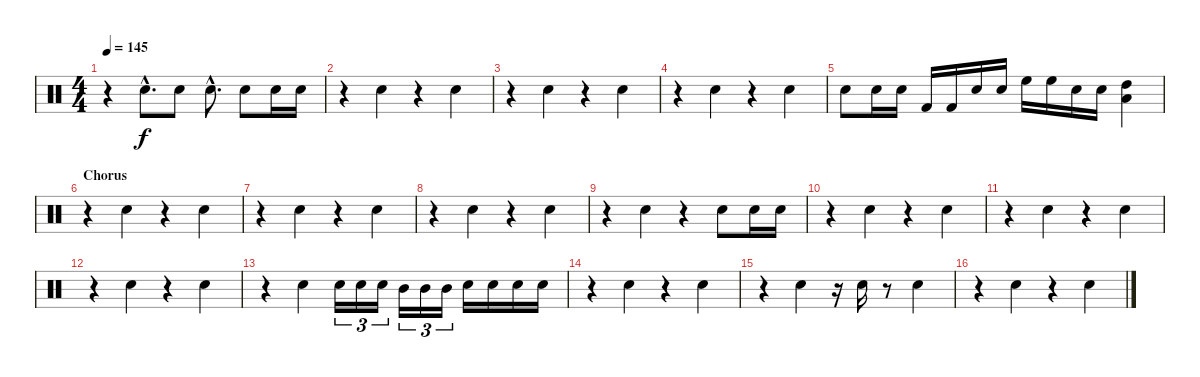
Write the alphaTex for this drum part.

\track "" {instrument percussion}
\staff {score}
\articulation defaults
\ts (4 4)
\tempo 145
\clef neutral
\ks c
r.4{dy f} "Electric Snare (hit)"{hac}.8{d} "Electric Snare (hit)".8 "Electric Snare (hit)"{hac}.8{d} "Electric Snare (hit)".8 "Electric Snare (hit)".16 "Electric Snare (hit)".16 |
r.4 "Electric Snare (hit)".4 r.4 "Electric Snare (hit)".4 |
r.4 "Electric Snare (hit)".4 r.4 "Electric Snare (hit)".4 |
r.4 "Electric Snare (hit)".4 r.4 "Electric Snare (hit)".4 |
"Electric Snare (hit)".8 "Electric Snare (hit)".16 "Electric Snare (hit)".16 "Kick (hit) 2".16 "Kick (hit) 2".16 "Electric Snare (hit)".16 "Electric Snare (hit)".16 "High Floor Tom (hit)".16 "High Floor Tom (hit)".16 "Electric Snare (hit)".16 "Electric Snare (hit)".16 ("Low Tom (hit)" "High Tom (hit)").4 |
\section ("" "Chorus")
r.4 "Electric Snare (hit)".4 r.4 "Electric Snare (hit)".4 |
r.4 "Electric Snare (hit)".4 r.4 "Electric Snare (hit)".4 |
r.4 "Electric Snare (hit)".4 r.4 "Electric Snare (hit)".4 |
r.4 "Electric Snare (hit)".4 r.4 "Electric Snare (hit)".8 "Electric Snare (hit)".16 "Electric Snare (hit)".16 |
r.4 "Electric Snare (hit)".4 r.4 "Electric Snare (hit)".4 |
r.4 "Electric Snare (hit)".4 r.4 "Electric Snare (hit)".4 |
r.4 "Electric Snare (hit)".4 r.4 "Electric Snare (hit)".4 |
r.4 "Electric Snare (hit)".4 "Electric Snare (hit)".16{tu (3 2)} "Electric Snare (hit)".16{tu (3 2)} "Electric Snare (hit)".16{tu (3 2)} "Mid Tom (hit)".16{tu (3 2)} "Mid Tom (hit)".16{tu (3 2)} "Mid Tom (hit)".16{tu (3 2)} "Electric Snare (hit)".16 "Electric Snare (hit)".16 "Electric Snare (hit)".16 "Electric Snare (hit)".16 |
r.4 "Electric Snare (hit)".4 r.4 "Electric Snare (hit)".4 |
r.4 "Electric Snare (hit)".4 r.16 "Electric Snare (hit)".16 r.8 "Electric Snare (hit)".4 |
r.4 "Electric Snare (hit)".4 r.4 "Electric Snare (hit)".4
